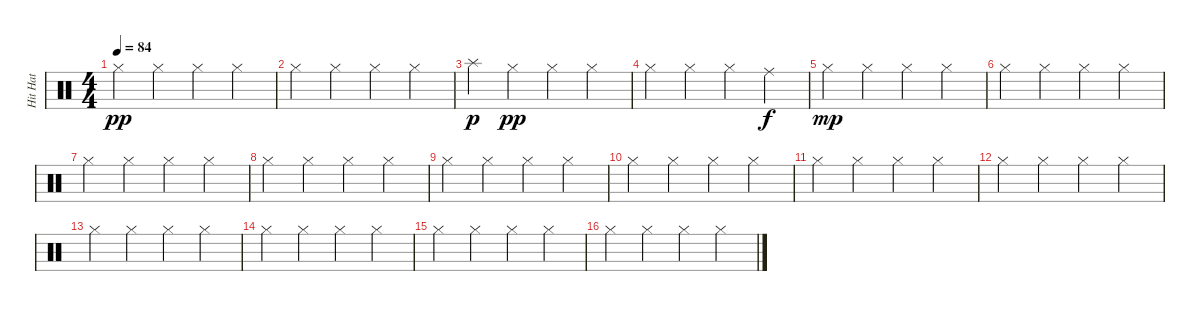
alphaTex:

\track ("Hit Hat" "Hit Hat") {instrument percussion}
\staff {score}
\articulation defaults
\ts (4 4)
\tempo 84
\clef neutral
\ks c "Hi-Hat (closed)".4{dy pp} "Hi-Hat (closed)".4 "Hi-Hat (closed)".4 "Hi-Hat (closed)".4
|
"Hi-Hat (closed)".4 "Hi-Hat (closed)".4 "Hi-Hat (closed)".4 "Hi-Hat (closed)".4 |
"Splash (hit)".4{dy p} "Hi-Hat (closed)".4{dy pp} "Hi-Hat (closed)".4 "Hi-Hat (closed)".4 |
"Hi-Hat (closed)".4 "Hi-Hat (closed)".4 "Hi-Hat (closed)".4 "Ride (middle)".4{dy f} |
"Hi-Hat (closed)".4{dy mp} "Hi-Hat (closed)".4 "Hi-Hat (closed)".4 "Hi-Hat (closed)".4 |
"Hi-Hat (closed)".4 "Hi-Hat (closed)".4 "Hi-Hat (closed)".4 "Hi-Hat (closed)".4 |
"Hi-Hat (closed)".4 "Hi-Hat (closed)".4 "Hi-Hat (closed)".4 "Hi-Hat (closed)".4 |
"Hi-Hat (closed)".4 "Hi-Hat (closed)".4 "Hi-Hat (closed)".4 "Hi-Hat (closed)".4 |
"Hi-Hat (closed)".4 "Hi-Hat (closed)".4 "Hi-Hat (closed)".4 "Hi-Hat (closed)".4 |
"Hi-Hat (closed)".4 "Hi-Hat (closed)".4 "Hi-Hat (closed)".4 "Hi-Hat (closed)".4 |
"Hi-Hat (closed)".4 "Hi-Hat (closed)".4 "Hi-Hat (closed)".4 "Hi-Hat (closed)".4 |
"Hi-Hat (closed)".4 "Hi-Hat (closed)".4 "Hi-Hat (closed)".4 "Hi-Hat (closed)".4 |
"Hi-Hat (closed)".4 "Hi-Hat (closed)".4 "Hi-Hat (closed)".4 "Hi-Hat (closed)".4 |
"Hi-Hat (closed)".4 "Hi-Hat (closed)".4 "Hi-Hat (closed)".4 "Hi-Hat (closed)".4 |
"Hi-Hat (closed)".4 "Hi-Hat (closed)".4 "Hi-Hat (closed)".4 "Hi-Hat (closed)".4 |
"Hi-Hat (closed)".4 "Hi-Hat (closed)".4 "Hi-Hat (closed)".4 "Hi-Hat (closed)".4
